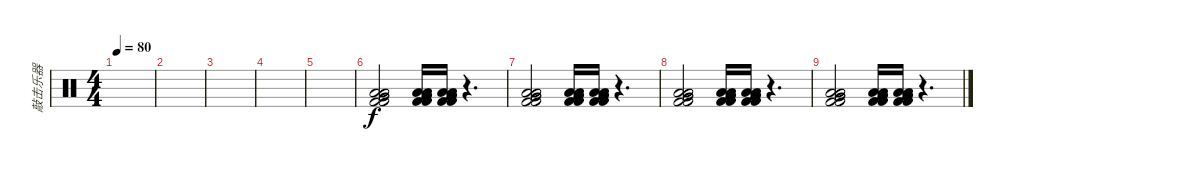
\track ("敲击乐器" "敲击乐器") {instrument percussion}
\staff {score}
\articulation defaults
\ts (4 4)
\tempo 80
\clef neutral
\ks c
|
|
|
|
|
("Kick (hit) 2" "Kick (hit) 2" "Low Floor Tom (hit)" "Low Floor Tom (hit)" "Very Low Tom (hit)" "Very Low Tom (hit)").2{volume 10} ("Kick (hit) 2" "Kick (hit) 2" "Low Floor Tom (hit)" "Low Floor Tom (hit)" "Very Low Tom (hit)" "Very Low Tom (hit)").16 ("Kick (hit) 2" "Kick (hit) 2" "Low Floor Tom (hit)" "Low Floor Tom (hit)" "Very Low Tom (hit)" "Very Low Tom (hit)").16 r.4{d} |
("Kick (hit) 2" "Kick (hit) 2" "Low Floor Tom (hit)" "Low Floor Tom (hit)" "Very Low Tom (hit)" "Very Low Tom (hit)").2 ("Kick (hit) 2" "Kick (hit) 2" "Low Floor Tom (hit)" "Low Floor Tom (hit)" "Very Low Tom (hit)" "Very Low Tom (hit)").16 ("Kick (hit) 2" "Kick (hit) 2" "Low Floor Tom (hit)" "Low Floor Tom (hit)" "Very Low Tom (hit)" "Very Low Tom (hit)").16 r.4{d} |
("Kick (hit) 2" "Kick (hit) 2" "Low Floor Tom (hit)" "Low Floor Tom (hit)" "Very Low Tom (hit)" "Very Low Tom (hit)").2 ("Kick (hit) 2" "Kick (hit) 2" "Low Floor Tom (hit)" "Low Floor Tom (hit)" "Very Low Tom (hit)" "Very Low Tom (hit)").16 ("Kick (hit) 2" "Kick (hit) 2" "Low Floor Tom (hit)" "Low Floor Tom (hit)" "Very Low Tom (hit)" "Very Low Tom (hit)").16 r.4{d} |
("Kick (hit) 2" "Kick (hit) 2" "Low Floor Tom (hit)" "Low Floor Tom (hit)" "Very Low Tom (hit)" "Very Low Tom (hit)").2 ("Kick (hit) 2" "Kick (hit) 2" "Low Floor Tom (hit)" "Low Floor Tom (hit)" "Very Low Tom (hit)" "Very Low Tom (hit)").16 ("Kick (hit) 2" "Kick (hit) 2" "Low Floor Tom (hit)" "Low Floor Tom (hit)" "Very Low Tom (hit)" "Very Low Tom (hit)").16 r.4{d}
